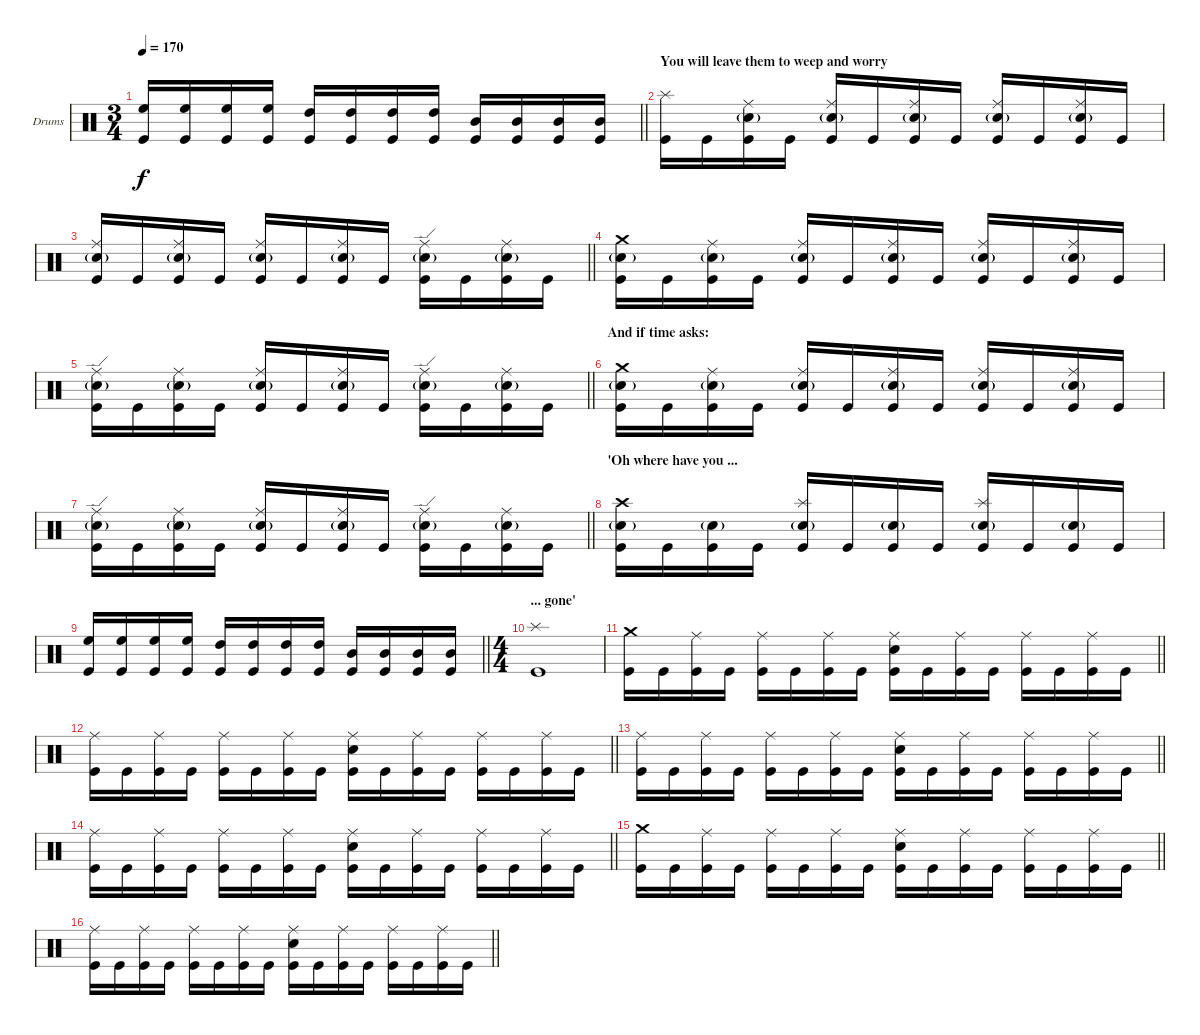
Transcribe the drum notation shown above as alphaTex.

\bracketExtendMode groupsimilarinstruments
\firstSystemTrackNameOrientation horizontal
\otherSystemsTrackNameOrientation horizontal
\track ("Drumkit" "Drums") {instrument percussion}
\staff {score}
\articulation defaults
\ts (3 4)
\tempo 170
\clef neutral
\barLineRight lightlight
\ks c
("High Floor Tom (hit)" "Kick (hit)").16{dy f} ("High Floor Tom (hit)" "Kick (hit)").16 ("High Floor Tom (hit)" "Kick (hit)").16 ("High Floor Tom (hit)" "Kick (hit)").16 ("High Tom (hit)" "Kick (hit)").16 ("High Tom (hit)" "Kick (hit)").16 ("High Tom (hit)" "Kick (hit)").16 ("High Tom (hit)" "Kick (hit)").16 ("Mid Tom (hit)" "Kick (hit)").16 ("Mid Tom (hit)" "Kick (hit)").16 ("Mid Tom (hit)" "Kick (hit)").16 ("Mid Tom (hit)" "Kick (hit)").16 |
\section ("" "You will leave them to weep and worry")
("Splash (hit)" "Kick (hit)").16 "Kick (hit)".16 ("Ride (middle)" "Snare (hit) 2"{g} "Kick (hit)").16 "Kick (hit)".16 ("Ride (middle)" "Snare (hit) 2"{g} "Kick (hit)").16 "Kick (hit)".16 ("Ride (middle)" "Snare (hit) 2"{g} "Kick (hit)").16 "Kick (hit)".16 ("Ride (middle)" "Snare (hit) 2"{g} "Kick (hit)").16 "Kick (hit)".16 ("Ride (middle)" "Snare (hit) 2"{g} "Kick (hit)").16 "Kick (hit)".16 |
\barLineRight lightlight
("Ride (middle)" "Snare (hit) 2"{g} "Kick (hit)").16 "Kick (hit)".16 ("Ride (middle)" "Snare (hit) 2"{g} "Kick (hit)").16 "Kick (hit)".16 ("Ride (middle)" "Snare (hit) 2"{g} "Kick (hit)").16 "Kick (hit)".16 ("Ride (middle)" "Snare (hit) 2"{g} "Kick (hit)").16 "Kick (hit)".16 ("Ride (edge)" "Snare (hit) 2"{g} "Kick (hit)").16 "Kick (hit)".16 ("Ride (middle)" "Snare (hit) 2"{g} "Kick (hit)").16 "Kick (hit)".16 |
("Crash medium (hit)" "Snare (hit) 2"{g} "Kick (hit)").16 "Kick (hit)".16 ("Ride (middle)" "Snare (hit) 2"{g} "Kick (hit)").16 "Kick (hit)".16 ("Ride (middle)" "Snare (hit) 2"{g} "Kick (hit)").16 "Kick (hit)".16 ("Ride (middle)" "Snare (hit) 2"{g} "Kick (hit)").16 "Kick (hit)".16 ("Ride (middle)" "Snare (hit) 2"{g} "Kick (hit)").16 "Kick (hit)".16 ("Ride (middle)" "Snare (hit) 2"{g} "Kick (hit)").16 "Kick (hit)".16 |
\barLineRight lightlight
("Ride (edge)" "Snare (hit) 2"{g} "Kick (hit)").16 "Kick (hit)".16 ("Ride (middle)" "Snare (hit) 2"{g} "Kick (hit)").16 "Kick (hit)".16 ("Ride (middle)" "Snare (hit) 2"{g} "Kick (hit)").16 "Kick (hit)".16 ("Ride (middle)" "Snare (hit) 2"{g} "Kick (hit)").16 "Kick (hit)".16 ("Ride (edge)" "Snare (hit) 2"{g} "Kick (hit)").16 "Kick (hit)".16 ("Ride (middle)" "Snare (hit) 2"{g} "Kick (hit)").16 "Kick (hit)".16 |
\section ("" "And if time asks:")
("Crash medium (hit)" "Snare (hit) 2"{g} "Kick (hit)").16 "Kick (hit)".16 ("Ride (middle)" "Snare (hit) 2"{g} "Kick (hit)").16 "Kick (hit)".16 ("Ride (middle)" "Snare (hit) 2"{g} "Kick (hit)").16 "Kick (hit)".16 ("Ride (middle)" "Snare (hit) 2"{g} "Kick (hit)").16 "Kick (hit)".16 ("Ride (middle)" "Snare (hit) 2"{g} "Kick (hit)").16 "Kick (hit)".16 ("Ride (middle)" "Snare (hit) 2"{g} "Kick (hit)").16 "Kick (hit)".16 |
\barLineRight lightlight
("Ride (edge)" "Snare (hit) 2"{g} "Kick (hit)").16 "Kick (hit)".16 ("Ride (middle)" "Snare (hit) 2"{g} "Kick (hit)").16 "Kick (hit)".16 ("Ride (middle)" "Snare (hit) 2"{g} "Kick (hit)").16 "Kick (hit)".16 ("Ride (middle)" "Snare (hit) 2"{g} "Kick (hit)").16 "Kick (hit)".16 ("Ride (edge)" "Snare (hit) 2"{g} "Kick (hit)").16 "Kick (hit)".16 ("Ride (middle)" "Snare (hit) 2"{g} "Kick (hit)").16 "Kick (hit)".16 |
\section ("" "'Oh where have you ...")
("Crash high (hit)" "Snare (hit) 2"{g} "Kick (hit)").16 "Kick (hit)".16 ("Snare (hit) 2"{g} "Kick (hit)").16 "Kick (hit)".16 ("Splash (hit)" "Snare (hit) 2"{g} "Kick (hit)").16 "Kick (hit)".16 ("Snare (hit) 2"{g} "Kick (hit)").16 "Kick (hit)".16 ("Splash (hit)" "Snare (hit) 2"{g} "Kick (hit)").16 "Kick (hit)".16 ("Snare (hit) 2"{g} "Kick (hit)").16 "Kick (hit)".16 |
\barLineRight lightlight
("High Floor Tom (hit)" "Kick (hit)").16 ("High Floor Tom (hit)" "Kick (hit)").16 ("High Floor Tom (hit)" "Kick (hit)").16 ("High Floor Tom (hit)" "Kick (hit)").16 ("High Tom (hit)" "Kick (hit)").16 ("High Tom (hit)" "Kick (hit)").16 ("High Tom (hit)" "Kick (hit)").16 ("High Tom (hit)" "Kick (hit)").16 ("Mid Tom (hit)" "Kick (hit)").16 ("Mid Tom (hit)" "Kick (hit)").16 ("Mid Tom (hit)" "Kick (hit)").16 ("Mid Tom (hit)" "Kick (hit)").16 |
\ts (4 4)
\beaming (8 2 2 2 2)
\section ("" "... gone'")
("Splash (hit)" "Kick (hit)").1 |
\barLineRight lightlight
("Crash medium (hit)" "Kick (hit)").16 "Kick (hit)".16 ("Ride (middle)" "Kick (hit)").16 "Kick (hit)".16 ("Ride (middle)" "Kick (hit)").16 "Kick (hit)".16 ("Ride (middle)" "Kick (hit)").16 "Kick (hit)".16 ("Ride (middle)" "Snare (hit) 2" "Kick (hit)").16 "Kick (hit)".16 ("Ride (middle)" "Kick (hit)").16 "Kick (hit)".16 ("Ride (middle)" "Kick (hit)").16 "Kick (hit)".16 ("Ride (middle)" "Kick (hit)").16 "Kick (hit)".16 |
\barLineRight lightlight
("Ride (middle)" "Kick (hit)").16 "Kick (hit)".16 ("Ride (middle)" "Kick (hit)").16 "Kick (hit)".16 ("Ride (middle)" "Kick (hit)").16 "Kick (hit)".16 ("Ride (middle)" "Kick (hit)").16 "Kick (hit)".16 ("Ride (middle)" "Snare (hit) 2" "Kick (hit)").16 "Kick (hit)".16 ("Ride (middle)" "Kick (hit)").16 "Kick (hit)".16 ("Ride (middle)" "Kick (hit)").16 "Kick (hit)".16 ("Ride (middle)" "Kick (hit)").16 "Kick (hit)".16 |
\barLineRight lightlight
("Ride (middle)" "Kick (hit)").16 "Kick (hit)".16 ("Ride (middle)" "Kick (hit)").16 "Kick (hit)".16 ("Ride (middle)" "Kick (hit)").16 "Kick (hit)".16 ("Ride (middle)" "Kick (hit)").16 "Kick (hit)".16 ("Ride (middle)" "Snare (hit) 2" "Kick (hit)").16 "Kick (hit)".16 ("Ride (middle)" "Kick (hit)").16 "Kick (hit)".16 ("Ride (middle)" "Kick (hit)").16 "Kick (hit)".16 ("Ride (middle)" "Kick (hit)").16 "Kick (hit)".16 |
\barLineRight lightlight
("Ride (middle)" "Kick (hit)").16 "Kick (hit)".16 ("Ride (middle)" "Kick (hit)").16 "Kick (hit)".16 ("Ride (middle)" "Kick (hit)").16 "Kick (hit)".16 ("Ride (middle)" "Kick (hit)").16 "Kick (hit)".16 ("Ride (middle)" "Snare (hit) 2" "Kick (hit)").16 "Kick (hit)".16 ("Ride (middle)" "Kick (hit)").16 "Kick (hit)".16 ("Ride (middle)" "Kick (hit)").16 "Kick (hit)".16 ("Ride (middle)" "Kick (hit)").16 "Kick (hit)".16 |
\barLineRight lightlight
("Crash medium (hit)" "Kick (hit)").16 "Kick (hit)".16 ("Ride (middle)" "Kick (hit)").16 "Kick (hit)".16 ("Ride (middle)" "Kick (hit)").16 "Kick (hit)".16 ("Ride (middle)" "Kick (hit)").16 "Kick (hit)".16 ("Ride (middle)" "Snare (hit) 2" "Kick (hit)").16 "Kick (hit)".16 ("Ride (middle)" "Kick (hit)").16 "Kick (hit)".16 ("Ride (middle)" "Kick (hit)").16 "Kick (hit)".16 ("Ride (middle)" "Kick (hit)").16 "Kick (hit)".16 |
\barLineRight lightlight
("Ride (middle)" "Kick (hit)").16 "Kick (hit)".16 ("Ride (middle)" "Kick (hit)").16 "Kick (hit)".16 ("Ride (middle)" "Kick (hit)").16 "Kick (hit)".16 ("Ride (middle)" "Kick (hit)").16 "Kick (hit)".16 ("Ride (middle)" "Snare (hit) 2" "Kick (hit)").16 "Kick (hit)".16 ("Ride (middle)" "Kick (hit)").16 "Kick (hit)".16 ("Ride (middle)" "Kick (hit)").16 "Kick (hit)".16 ("Ride (middle)" "Kick (hit)").16 "Kick (hit)".16
